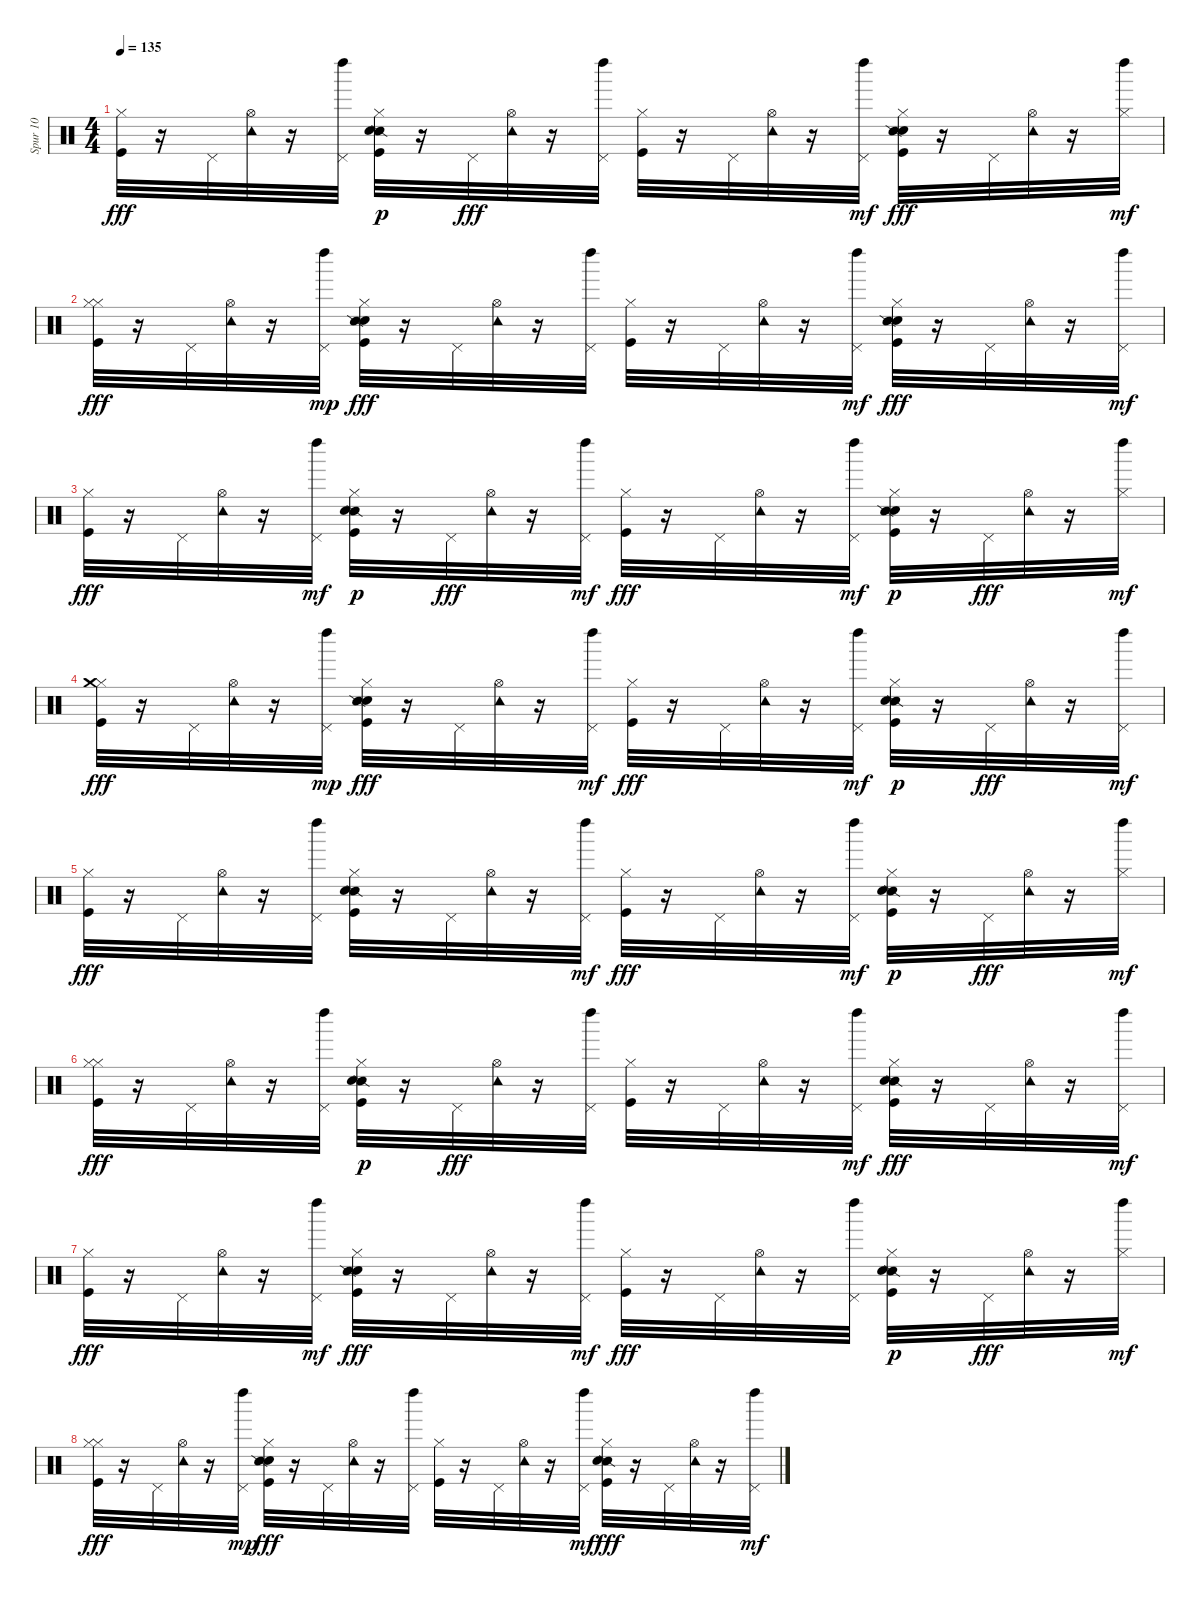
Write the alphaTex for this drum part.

\track ("Spur 10" "Spur 10") {instrument percussion}
\staff {score}
\articulation defaults
\ts (4 4)
\tempo 135
\clef neutral
\ks c
("Kick (hit)" "Hi-Hat (closed)").32{dy fff} r.16 "Pedal Hi-Hat (hit)".32 ("Tambourine (hit)" "Hi-Hat (open)").32 r.16 ("Left Maraca (hit)" "Pedal Hi-Hat (hit)").32 ("Kick (hit)" "Hi-Hat (closed)" "Snare (side stick) 2" "Hand Clap (hit)").32{dy p} r.16 "Pedal Hi-Hat (hit)".32{dy fff} ("Tambourine (hit)" "Hi-Hat (open)").32 r.16 ("Left Maraca (hit)" "Pedal Hi-Hat (hit)").32 ("Hi-Hat (closed)" "Kick (hit)").32 r.16 "Pedal Hi-Hat (hit)".32 ("Tambourine (hit)" "Hi-Hat (open)").32 r.16 ("Pedal Hi-Hat (hit)" "Left Maraca (hit)").32{dy mf} ("Hand Clap (hit)" "Snare (side stick) 2" "Kick (hit)" "Hi-Hat (closed)").32{dy fff} r.16 "Pedal Hi-Hat (hit)".32 ("Hi-Hat (open)" "Tambourine (hit)").32 r.16 ("Hi-Hat (closed)" "Left Maraca (hit)").32{dy mf} |
("Hi-Hat (closed)" "Kick (hit)" "Hi-Hat (closed)").32{dy fff} r.16 "Pedal Hi-Hat (hit)".32 ("Hi-Hat (open)" "Tambourine (hit)").32 r.16 ("Pedal Hi-Hat (hit)" "Left Maraca (hit)").32{dy mp} ("Kick (hit)" "Hand Clap (hit)" "Hi-Hat (closed)" "Snare (side stick) 2").32{dy fff} r.16 "Pedal Hi-Hat (hit)".32 ("Tambourine (hit)" "Hi-Hat (open)").32 r.16 ("Left Maraca (hit)" "Pedal Hi-Hat (hit)").32 ("Kick (hit)" "Hi-Hat (closed)").32 r.16 "Pedal Hi-Hat (hit)".32 ("Hi-Hat (open)" "Tambourine (hit)").32 r.16 ("Left Maraca (hit)" "Pedal Hi-Hat (hit)").32{dy mf} ("Kick (hit)" "Hand Clap (hit)" "Hi-Hat (closed)" "Snare (side stick) 2").32{dy fff} r.16 "Pedal Hi-Hat (hit)".32 ("Tambourine (hit)" "Hi-Hat (open)").32 r.16 ("Pedal Hi-Hat (hit)" "Left Maraca (hit)").32{dy mf} |
("Kick (hit)" "Hi-Hat (closed)").32{dy fff} r.16 "Pedal Hi-Hat (hit)".32 ("Hi-Hat (open)" "Tambourine (hit)").32 r.16 ("Pedal Hi-Hat (hit)" "Left Maraca (hit)").32{dy mf} ("Snare (side stick) 2" "Hi-Hat (closed)" "Kick (hit)" "Hand Clap (hit)").32{dy p} r.16 "Pedal Hi-Hat (hit)".32{dy fff} ("Tambourine (hit)" "Hi-Hat (open)").32 r.16 ("Pedal Hi-Hat (hit)" "Left Maraca (hit)").32{dy mf} ("Hi-Hat (closed)" "Kick (hit)").32{dy fff} r.16 "Pedal Hi-Hat (hit)".32 ("Tambourine (hit)" "Hi-Hat (open)").32 r.16 ("Pedal Hi-Hat (hit)" "Left Maraca (hit)").32{dy mf} ("Hi-Hat (closed)" "Kick (hit)" "Hand Clap (hit)" "Snare (side stick) 2").32{dy p} r.16 "Pedal Hi-Hat (hit)".32{dy fff} ("Hi-Hat (open)" "Tambourine (hit)").32 r.16 ("Left Maraca (hit)" "Hi-Hat (closed)").32{dy mf} |
("Hi-Hat (closed)" "Kick (hit)" "Crash medium (hit)").32{dy fff} r.16 "Pedal Hi-Hat (hit)".32 ("Hi-Hat (open)" "Tambourine (hit)").32 r.16 ("Pedal Hi-Hat (hit)" "Left Maraca (hit)").32{dy mp} ("Kick (hit)" "Hand Clap (hit)" "Snare (side stick) 2" "Hi-Hat (closed)").32{dy fff} r.16 "Pedal Hi-Hat (hit)".32 ("Hi-Hat (open)" "Tambourine (hit)").32 r.16 ("Pedal Hi-Hat (hit)" "Left Maraca (hit)").32{dy mf} ("Kick (hit)" "Hi-Hat (closed)").32{dy fff} r.16 "Pedal Hi-Hat (hit)".32 ("Tambourine (hit)" "Hi-Hat (open)").32 r.16 ("Left Maraca (hit)" "Pedal Hi-Hat (hit)").32{dy mf} ("Hi-Hat (closed)" "Snare (side stick) 2" "Kick (hit)" "Hand Clap (hit)").32{dy p} r.16 "Pedal Hi-Hat (hit)".32{dy fff} ("Hi-Hat (open)" "Tambourine (hit)").32 r.16 ("Pedal Hi-Hat (hit)" "Left Maraca (hit)").32{dy mf} |
("Kick (hit)" "Hi-Hat (closed)").32{dy fff} r.16 "Pedal Hi-Hat (hit)".32 ("Hi-Hat (open)" "Tambourine (hit)").32 r.16 ("Left Maraca (hit)" "Pedal Hi-Hat (hit)").32 ("Snare (side stick) 2" "Hand Clap (hit)" "Hi-Hat (closed)" "Kick (hit)").32 r.16 "Pedal Hi-Hat (hit)".32 ("Tambourine (hit)" "Hi-Hat (open)").32 r.16 ("Pedal Hi-Hat (hit)" "Left Maraca (hit)").32{dy mf} ("Kick (hit)" "Hi-Hat (closed)").32{dy fff} r.16 "Pedal Hi-Hat (hit)".32 ("Hi-Hat (open)" "Tambourine (hit)").32 r.16 ("Pedal Hi-Hat (hit)" "Left Maraca (hit)").32{dy mf} ("Snare (side stick) 2" "Hi-Hat (closed)" "Kick (hit)" "Hand Clap (hit)").32{dy p} r.16 "Pedal Hi-Hat (hit)".32{dy fff} ("Tambourine (hit)" "Hi-Hat (open)").32 r.16 ("Hi-Hat (closed)" "Left Maraca (hit)").32{dy mf} |
("Hi-Hat (closed)" "Kick (hit)" "Hi-Hat (closed)").32{dy fff} r.16 "Pedal Hi-Hat (hit)".32 ("Tambourine (hit)" "Hi-Hat (open)").32 r.16 ("Left Maraca (hit)" "Pedal Hi-Hat (hit)").32 ("Kick (hit)" "Hi-Hat (closed)" "Snare (side stick) 2" "Hand Clap (hit)").32{dy p} r.16 "Pedal Hi-Hat (hit)".32{dy fff} ("Hi-Hat (open)" "Tambourine (hit)").32 r.16 ("Left Maraca (hit)" "Pedal Hi-Hat (hit)").32 ("Kick (hit)" "Hi-Hat (closed)").32 r.16 "Pedal Hi-Hat (hit)".32 ("Hi-Hat (open)" "Tambourine (hit)").32 r.16 ("Left Maraca (hit)" "Pedal Hi-Hat (hit)").32{dy mf} ("Kick (hit)" "Snare (side stick) 2" "Hand Clap (hit)" "Hi-Hat (closed)").32{dy fff} r.16 "Pedal Hi-Hat (hit)".32 ("Hi-Hat (open)" "Tambourine (hit)").32 r.16 ("Pedal Hi-Hat (hit)" "Left Maraca (hit)").32{dy mf} |
("Kick (hit)" "Hi-Hat (closed)").32{dy fff} r.16 "Pedal Hi-Hat (hit)".32 ("Hi-Hat (open)" "Tambourine (hit)").32 r.16 ("Pedal Hi-Hat (hit)" "Left Maraca (hit)").32{dy mf} ("Hand Clap (hit)" "Kick (hit)" "Hi-Hat (closed)" "Snare (side stick) 2").32{dy fff} r.16 "Pedal Hi-Hat (hit)".32 ("Tambourine (hit)" "Hi-Hat (open)").32 r.16 ("Pedal Hi-Hat (hit)" "Left Maraca (hit)").32{dy mf} ("Hi-Hat (closed)" "Kick (hit)").32{dy fff} r.16 "Pedal Hi-Hat (hit)".32 ("Hi-Hat (open)" "Tambourine (hit)").32 r.16 ("Left Maraca (hit)" "Pedal Hi-Hat (hit)").32 ("Hi-Hat (closed)" "Kick (hit)" "Snare (side stick) 2" "Hand Clap (hit)").32{dy p} r.16 "Pedal Hi-Hat (hit)".32{dy fff} ("Tambourine (hit)" "Hi-Hat (open)").32 r.16 ("Left Maraca (hit)" "Hi-Hat (closed)").32{dy mf} |
("Kick (hit)" "Hi-Hat (closed)" "Hi-Hat (closed)").32{dy fff} r.16 "Pedal Hi-Hat (hit)".32 ("Tambourine (hit)" "Hi-Hat (open)").32 r.16 ("Pedal Hi-Hat (hit)" "Left Maraca (hit)").32{dy mp} ("Hand Clap (hit)" "Hi-Hat (closed)" "Snare (side stick) 2" "Kick (hit)").32{dy fff} r.16 "Pedal Hi-Hat (hit)".32 ("Hi-Hat (open)" "Tambourine (hit)").32 r.16 ("Left Maraca (hit)" "Pedal Hi-Hat (hit)").32 ("Kick (hit)" "Hi-Hat (closed)").32 r.16 "Pedal Hi-Hat (hit)".32 ("Hi-Hat (open)" "Tambourine (hit)").32 r.16 ("Pedal Hi-Hat (hit)" "Left Maraca (hit)").32{dy mf} ("Hi-Hat (closed)" "Snare (side stick) 2" "Hand Clap (hit)" "Kick (hit)").32{dy fff} r.16 "Pedal Hi-Hat (hit)".32 ("Tambourine (hit)" "Hi-Hat (open)").32 r.16 ("Left Maraca (hit)" "Pedal Hi-Hat (hit)").32{dy mf}
